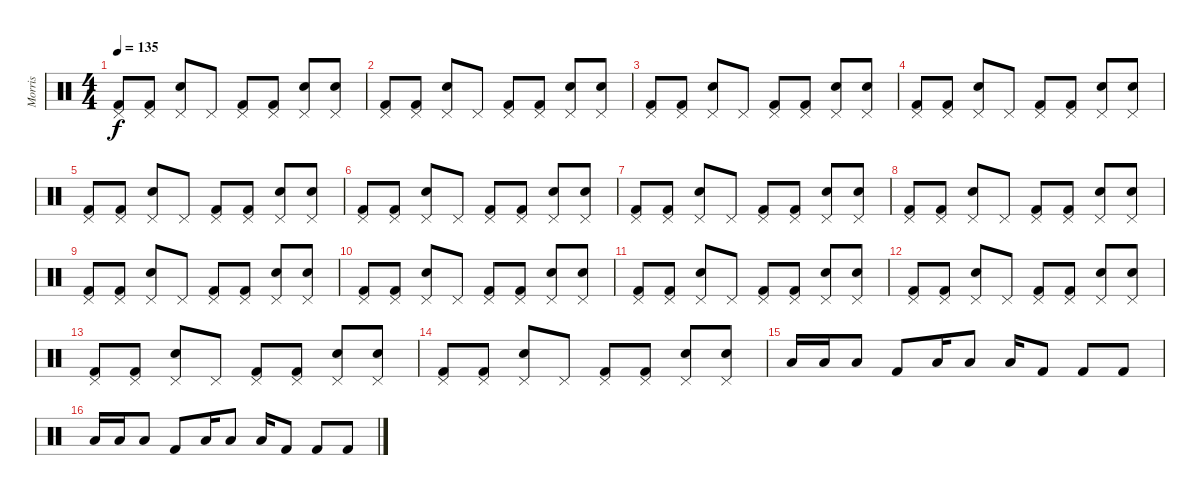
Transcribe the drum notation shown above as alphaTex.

\track ("Morris" "Morris") {instrument percussion}
\staff {score}
\articulation defaults
\ts (4 4)
\tempo 135
\clef neutral
\ks c
("Pedal Hi-Hat (hit)" "Kick (hit) 2").8{dy f} ("Pedal Hi-Hat (hit)" "Kick (hit) 2").8 ("Pedal Hi-Hat (hit)" "Electric Snare (hit)").8 "Pedal Hi-Hat (hit)".8 ("Pedal Hi-Hat (hit)" "Kick (hit) 2").8 ("Pedal Hi-Hat (hit)" "Kick (hit) 2").8 ("Pedal Hi-Hat (hit)" "Electric Snare (hit)").8 ("Pedal Hi-Hat (hit)" "Electric Snare (hit)").8 |
("Pedal Hi-Hat (hit)" "Kick (hit) 2").8 ("Pedal Hi-Hat (hit)" "Kick (hit) 2").8 ("Pedal Hi-Hat (hit)" "Electric Snare (hit)").8 "Pedal Hi-Hat (hit)".8 ("Pedal Hi-Hat (hit)" "Kick (hit) 2").8 ("Pedal Hi-Hat (hit)" "Kick (hit) 2").8 ("Pedal Hi-Hat (hit)" "Electric Snare (hit)").8 ("Pedal Hi-Hat (hit)" "Electric Snare (hit)").8 |
("Pedal Hi-Hat (hit)" "Kick (hit) 2").8 ("Pedal Hi-Hat (hit)" "Kick (hit) 2").8 ("Pedal Hi-Hat (hit)" "Electric Snare (hit)").8 "Pedal Hi-Hat (hit)".8 ("Pedal Hi-Hat (hit)" "Kick (hit) 2").8 ("Pedal Hi-Hat (hit)" "Kick (hit) 2").8 ("Pedal Hi-Hat (hit)" "Electric Snare (hit)").8 ("Pedal Hi-Hat (hit)" "Electric Snare (hit)").8 |
("Pedal Hi-Hat (hit)" "Kick (hit) 2").8 ("Pedal Hi-Hat (hit)" "Kick (hit) 2").8 ("Pedal Hi-Hat (hit)" "Electric Snare (hit)").8 "Pedal Hi-Hat (hit)".8 ("Pedal Hi-Hat (hit)" "Kick (hit) 2").8 ("Pedal Hi-Hat (hit)" "Kick (hit) 2").8 ("Pedal Hi-Hat (hit)" "Electric Snare (hit)").8 ("Pedal Hi-Hat (hit)" "Electric Snare (hit)").8 |
("Pedal Hi-Hat (hit)" "Kick (hit) 2").8 ("Pedal Hi-Hat (hit)" "Kick (hit) 2").8 ("Pedal Hi-Hat (hit)" "Electric Snare (hit)").8 "Pedal Hi-Hat (hit)".8 ("Pedal Hi-Hat (hit)" "Kick (hit) 2").8 ("Pedal Hi-Hat (hit)" "Kick (hit) 2").8 ("Pedal Hi-Hat (hit)" "Electric Snare (hit)").8 ("Pedal Hi-Hat (hit)" "Electric Snare (hit)").8 |
("Pedal Hi-Hat (hit)" "Kick (hit) 2").8 ("Pedal Hi-Hat (hit)" "Kick (hit) 2").8 ("Pedal Hi-Hat (hit)" "Electric Snare (hit)").8 "Pedal Hi-Hat (hit)".8 ("Pedal Hi-Hat (hit)" "Kick (hit) 2").8 ("Pedal Hi-Hat (hit)" "Kick (hit) 2").8 ("Pedal Hi-Hat (hit)" "Electric Snare (hit)").8 ("Pedal Hi-Hat (hit)" "Electric Snare (hit)").8 |
("Pedal Hi-Hat (hit)" "Kick (hit) 2").8 ("Pedal Hi-Hat (hit)" "Kick (hit) 2").8 ("Pedal Hi-Hat (hit)" "Electric Snare (hit)").8 "Pedal Hi-Hat (hit)".8 ("Pedal Hi-Hat (hit)" "Kick (hit) 2").8 ("Pedal Hi-Hat (hit)" "Kick (hit) 2").8 ("Pedal Hi-Hat (hit)" "Electric Snare (hit)").8 ("Pedal Hi-Hat (hit)" "Electric Snare (hit)").8 |
("Pedal Hi-Hat (hit)" "Kick (hit) 2").8 ("Pedal Hi-Hat (hit)" "Kick (hit) 2").8 ("Pedal Hi-Hat (hit)" "Electric Snare (hit)").8 "Pedal Hi-Hat (hit)".8 ("Pedal Hi-Hat (hit)" "Kick (hit) 2").8 ("Pedal Hi-Hat (hit)" "Kick (hit) 2").8 ("Pedal Hi-Hat (hit)" "Electric Snare (hit)").8 ("Pedal Hi-Hat (hit)" "Electric Snare (hit)").8 |
("Pedal Hi-Hat (hit)" "Kick (hit) 2").8 ("Pedal Hi-Hat (hit)" "Kick (hit) 2").8 ("Pedal Hi-Hat (hit)" "Electric Snare (hit)").8 "Pedal Hi-Hat (hit)".8 ("Pedal Hi-Hat (hit)" "Kick (hit) 2").8 ("Pedal Hi-Hat (hit)" "Kick (hit) 2").8 ("Pedal Hi-Hat (hit)" "Electric Snare (hit)").8 ("Pedal Hi-Hat (hit)" "Electric Snare (hit)").8 |
("Pedal Hi-Hat (hit)" "Kick (hit) 2").8 ("Pedal Hi-Hat (hit)" "Kick (hit) 2").8 ("Pedal Hi-Hat (hit)" "Electric Snare (hit)").8 "Pedal Hi-Hat (hit)".8 ("Pedal Hi-Hat (hit)" "Kick (hit) 2").8 ("Pedal Hi-Hat (hit)" "Kick (hit) 2").8 ("Pedal Hi-Hat (hit)" "Electric Snare (hit)").8 ("Pedal Hi-Hat (hit)" "Electric Snare (hit)").8 |
("Pedal Hi-Hat (hit)" "Kick (hit) 2").8 ("Pedal Hi-Hat (hit)" "Kick (hit) 2").8 ("Pedal Hi-Hat (hit)" "Electric Snare (hit)").8 "Pedal Hi-Hat (hit)".8 ("Pedal Hi-Hat (hit)" "Kick (hit) 2").8 ("Pedal Hi-Hat (hit)" "Kick (hit) 2").8 ("Pedal Hi-Hat (hit)" "Electric Snare (hit)").8 ("Pedal Hi-Hat (hit)" "Electric Snare (hit)").8 |
("Pedal Hi-Hat (hit)" "Kick (hit) 2").8 ("Pedal Hi-Hat (hit)" "Kick (hit) 2").8 ("Pedal Hi-Hat (hit)" "Electric Snare (hit)").8 "Pedal Hi-Hat (hit)".8 ("Pedal Hi-Hat (hit)" "Kick (hit) 2").8 ("Pedal Hi-Hat (hit)" "Kick (hit) 2").8 ("Pedal Hi-Hat (hit)" "Electric Snare (hit)").8 ("Pedal Hi-Hat (hit)" "Electric Snare (hit)").8 |
("Pedal Hi-Hat (hit)" "Kick (hit) 2").8 ("Pedal Hi-Hat (hit)" "Kick (hit) 2").8 ("Pedal Hi-Hat (hit)" "Electric Snare (hit)").8 "Pedal Hi-Hat (hit)".8 ("Pedal Hi-Hat (hit)" "Kick (hit) 2").8 ("Pedal Hi-Hat (hit)" "Kick (hit) 2").8 ("Pedal Hi-Hat (hit)" "Electric Snare (hit)").8 ("Pedal Hi-Hat (hit)" "Electric Snare (hit)").8 |
("Pedal Hi-Hat (hit)" "Kick (hit) 2").8 ("Pedal Hi-Hat (hit)" "Kick (hit) 2").8 ("Pedal Hi-Hat (hit)" "Electric Snare (hit)").8 "Pedal Hi-Hat (hit)".8 ("Pedal Hi-Hat (hit)" "Kick (hit) 2").8 ("Pedal Hi-Hat (hit)" "Kick (hit) 2").8 ("Pedal Hi-Hat (hit)" "Electric Snare (hit)").8 ("Pedal Hi-Hat (hit)" "Electric Snare (hit)").8 |
"Low Tom (hit)".16 "Low Tom (hit)".16 "Low Tom (hit)".8 "Kick (hit) 2".8 "Low Tom (hit)".16 "Low Tom (hit)".8 "Low Tom (hit)".16 "Kick (hit) 2".8 "Kick (hit) 2".8 "Kick (hit) 2".8 |
"Low Tom (hit)".16 "Low Tom (hit)".16 "Low Tom (hit)".8 "Kick (hit) 2".8 "Low Tom (hit)".16 "Low Tom (hit)".8 "Low Tom (hit)".16 "Kick (hit) 2".8 "Kick (hit) 2".8 "Kick (hit) 2".8
